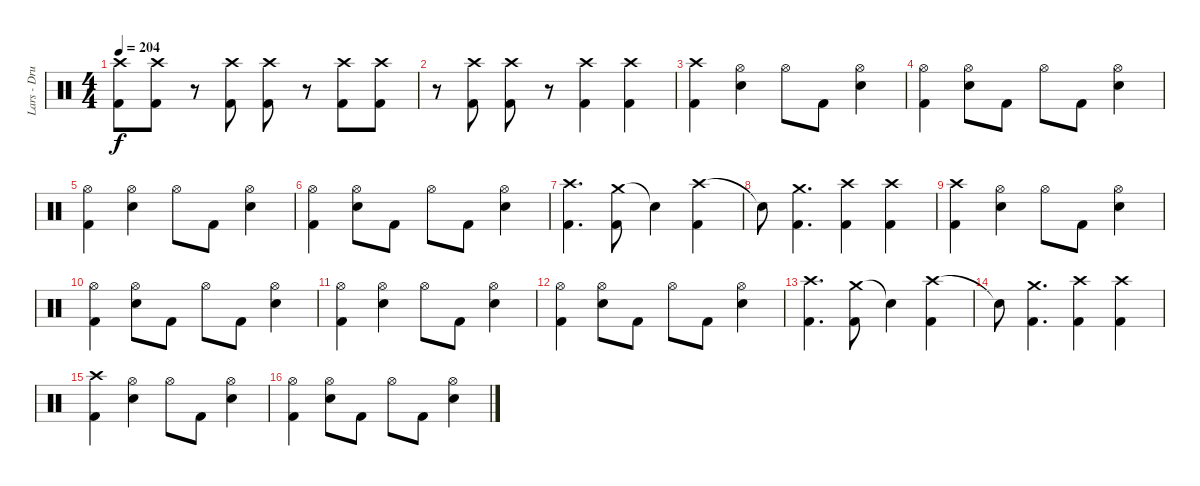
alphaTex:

\track ("Lars - Drums" "Lars - Dru") {instrument percussion}
\staff {score}
\articulation defaults
\ts (4 4)
\tempo 204
\clef neutral
\ks c
("Crash high (hit)" "Kick (hit) 2").8{dy f} ("Crash high (hit)" "Kick (hit) 2").8 r.8 ("Crash high (hit)" "Kick (hit) 2").8 ("Crash high (hit)" "Kick (hit) 2").8 r.8 ("Crash high (hit)" "Kick (hit) 2").8 ("Crash high (hit)" "Kick (hit) 2").8 |
r.8 ("Crash high (hit)" "Kick (hit) 2").8 ("Crash high (hit)" "Kick (hit) 2").8 r.8 ("Crash high (hit)" "Kick (hit) 2").4 ("Crash high (hit)" "Kick (hit) 2").4 |
("Crash high (hit)" "Kick (hit) 2").4 ("Hi-Hat (open)" "Electric Snare (hit)").4 "Hi-Hat (open)".8 "Kick (hit) 2".8 ("Hi-Hat (open)" "Electric Snare (hit)").4 |
("Hi-Hat (open)" "Kick (hit) 2").4 ("Hi-Hat (open)" "Electric Snare (hit)").8 "Kick (hit) 2".8 "Hi-Hat (open)".8 "Kick (hit) 2".8 ("Hi-Hat (open)" "Electric Snare (hit)").4 |
("Hi-Hat (open)" "Kick (hit) 2").4 ("Hi-Hat (open)" "Electric Snare (hit)").4 "Hi-Hat (open)".8 "Kick (hit) 2".8 ("Hi-Hat (open)" "Electric Snare (hit)").4 |
("Hi-Hat (open)" "Kick (hit) 2").4 ("Hi-Hat (open)" "Electric Snare (hit)").8 "Kick (hit) 2".8 "Hi-Hat (open)".8 "Kick (hit) 2".8 ("Hi-Hat (open)" "Electric Snare (hit)").4 |
("Crash high (hit)" "Kick (hit) 2").4{d} ("Crash medium (hit)" "Kick (hit) 2").8 "Snare (hit)"{t}.4 ("Crash high (hit)" "Kick (hit) 2").4 |
"Snare (hit)"{t}.8 ("Crash medium (hit)" "Kick (hit) 2").4{d} ("Crash high (hit)" "Kick (hit) 2").4 ("Crash high (hit)" "Kick (hit) 2").4 |
("Crash high (hit)" "Kick (hit) 2").4 ("Hi-Hat (open)" "Electric Snare (hit)").4 "Hi-Hat (open)".8 "Kick (hit) 2".8 ("Hi-Hat (open)" "Electric Snare (hit)").4 |
("Hi-Hat (open)" "Kick (hit) 2").4 ("Hi-Hat (open)" "Electric Snare (hit)").8 "Kick (hit) 2".8 "Hi-Hat (open)".8 "Kick (hit) 2".8 ("Hi-Hat (open)" "Electric Snare (hit)").4 |
("Hi-Hat (open)" "Kick (hit) 2").4 ("Hi-Hat (open)" "Electric Snare (hit)").4 "Hi-Hat (open)".8 "Kick (hit) 2".8 ("Hi-Hat (open)" "Electric Snare (hit)").4 |
("Hi-Hat (open)" "Kick (hit) 2").4 ("Hi-Hat (open)" "Electric Snare (hit)").8 "Kick (hit) 2".8 "Hi-Hat (open)".8 "Kick (hit) 2".8 ("Hi-Hat (open)" "Electric Snare (hit)").4 |
("Crash high (hit)" "Kick (hit) 2").4{d} ("Crash medium (hit)" "Kick (hit) 2").8 "Snare (hit)"{t}.4 ("Crash high (hit)" "Kick (hit) 2").4 |
"Snare (hit)"{t}.8 ("Crash medium (hit)" "Kick (hit) 2").4{d} ("Crash high (hit)" "Kick (hit) 2").4 ("Crash high (hit)" "Kick (hit) 2").4 |
("Crash high (hit)" "Kick (hit) 2").4 ("Hi-Hat (open)" "Electric Snare (hit)").4 "Hi-Hat (open)".8 "Kick (hit) 2".8 ("Hi-Hat (open)" "Electric Snare (hit)").4 |
("Hi-Hat (open)" "Kick (hit) 2").4 ("Hi-Hat (open)" "Electric Snare (hit)").8 "Kick (hit) 2".8 "Hi-Hat (open)".8 "Kick (hit) 2".8 ("Hi-Hat (open)" "Electric Snare (hit)").4
